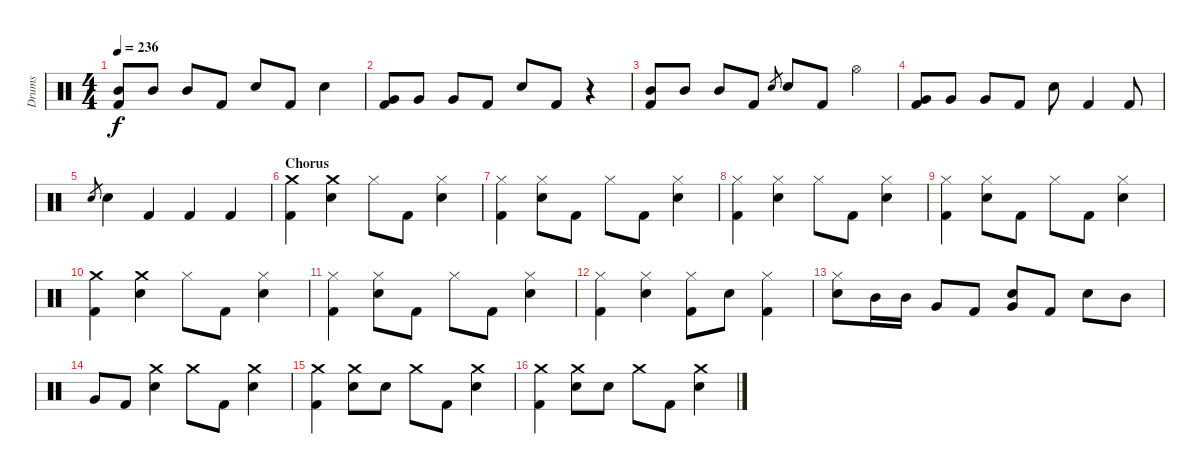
\track ("Drums" "Drums") {instrument percussion}
\staff {score}
\articulation defaults
\ts (4 4)
\tempo 236
\clef neutral
\ks c
("Mid Tom (hit)" "Kick (hit) 2").8{dy f} "Mid Tom (hit)".8 "Mid Tom (hit)".8 "Kick (hit) 2".8 "Electric Snare (hit)".8 "Kick (hit) 2".8 "Electric Snare (hit)".4 |
("Very Low Tom (hit)" "Kick (hit) 2").8 "Very Low Tom (hit)".8 "Very Low Tom (hit)".8 "Kick (hit) 2".8 "Electric Snare (hit)".8 "Kick (hit) 2".8 r.4 |
("Mid Tom (hit)" "Kick (hit) 2").8 "Mid Tom (hit)".8 "Mid Tom (hit)".8 "Kick (hit) 2".8 "Electric Snare (hit)".8{gr} "Electric Snare (hit)".8 "Kick (hit) 2".8 "Hi-Hat (open)".4 |
("Very Low Tom (hit)" "Kick (hit) 2").8 "Very Low Tom (hit)".8 "Very Low Tom (hit)".8 "Kick (hit) 2".8 "Electric Snare (hit)".8 "Kick (hit) 2".4 "Kick (hit) 2".8 |
"Electric Snare (hit)".8{gr} "Electric Snare (hit)".4 "Kick (hit) 2".4 "Kick (hit) 2".4 "Kick (hit) 2".4 |
\section ("" "Chorus")
("Crash medium (hit)" "Kick (hit) 2").4 ("Crash medium (hit)" "Electric Snare (hit)").4 "Hi-Hat (closed)".8 "Kick (hit) 2".8 ("Hi-Hat (closed)" "Electric Snare (hit)").4 |
("Hi-Hat (closed)" "Kick (hit) 2").4 ("Hi-Hat (closed)" "Electric Snare (hit)").8 "Kick (hit) 2".8 "Hi-Hat (closed)".8 "Kick (hit) 2".8 ("Hi-Hat (closed)" "Electric Snare (hit)").4 |
("Hi-Hat (closed)" "Kick (hit) 2").4 ("Hi-Hat (closed)" "Electric Snare (hit)").4 "Hi-Hat (closed)".8 "Kick (hit) 2".8 ("Hi-Hat (closed)" "Electric Snare (hit)").4 |
("Hi-Hat (closed)" "Kick (hit) 2").4 ("Hi-Hat (closed)" "Electric Snare (hit)").8 "Kick (hit) 2".8 "Hi-Hat (closed)".8 "Kick (hit) 2".8 ("Hi-Hat (closed)" "Electric Snare (hit)").4 |
("Crash medium (hit)" "Kick (hit) 2").4 ("Crash medium (hit)" "Electric Snare (hit)").4 "Hi-Hat (closed)".8 "Kick (hit) 2".8 ("Hi-Hat (closed)" "Electric Snare (hit)").4 |
("Hi-Hat (closed)" "Kick (hit) 2").4 ("Hi-Hat (closed)" "Electric Snare (hit)").8 "Kick (hit) 2".8 "Hi-Hat (closed)".8 "Kick (hit) 2".8 ("Hi-Hat (closed)" "Electric Snare (hit)").4 |
("Hi-Hat (closed)" "Kick (hit) 2").4 ("Hi-Hat (closed)" "Electric Snare (hit)").4 ("Hi-Hat (closed)" "Kick (hit) 2").8 "Electric Snare (hit)".8 ("Hi-Hat (closed)" "Kick (hit) 2").4 |
("Hi-Hat (closed)" "Electric Snare (hit)").8 "Mid Tom (hit)".16 "Mid Tom (hit)".16 "Very Low Tom (hit)".8 "Kick (hit) 2".8 ("Very Low Tom (hit)" "Electric Snare (hit)").8 "Kick (hit) 2".8 "Electric Snare (hit)".8 "Mid Tom (hit)".8 |
"Very Low Tom (hit)".8 "Kick (hit) 2".8 ("Crash medium (hit)" "Electric Snare (hit)").4 "Crash medium (hit)".8 "Kick (hit) 2".8 ("Crash medium (hit)" "Electric Snare (hit)").4 |
("Crash medium (hit)" "Kick (hit) 2").4 ("Crash medium (hit)" "Electric Snare (hit)").8 "Electric Snare (hit)".8 "Crash medium (hit)".8 "Kick (hit) 2".8 ("Crash medium (hit)" "Electric Snare (hit)").4 |
("Crash medium (hit)" "Kick (hit) 2").4 ("Crash medium (hit)" "Electric Snare (hit)").8 "Electric Snare (hit)".8 "Crash medium (hit)".8 "Kick (hit) 2".8 ("Crash medium (hit)" "Electric Snare (hit)").4
